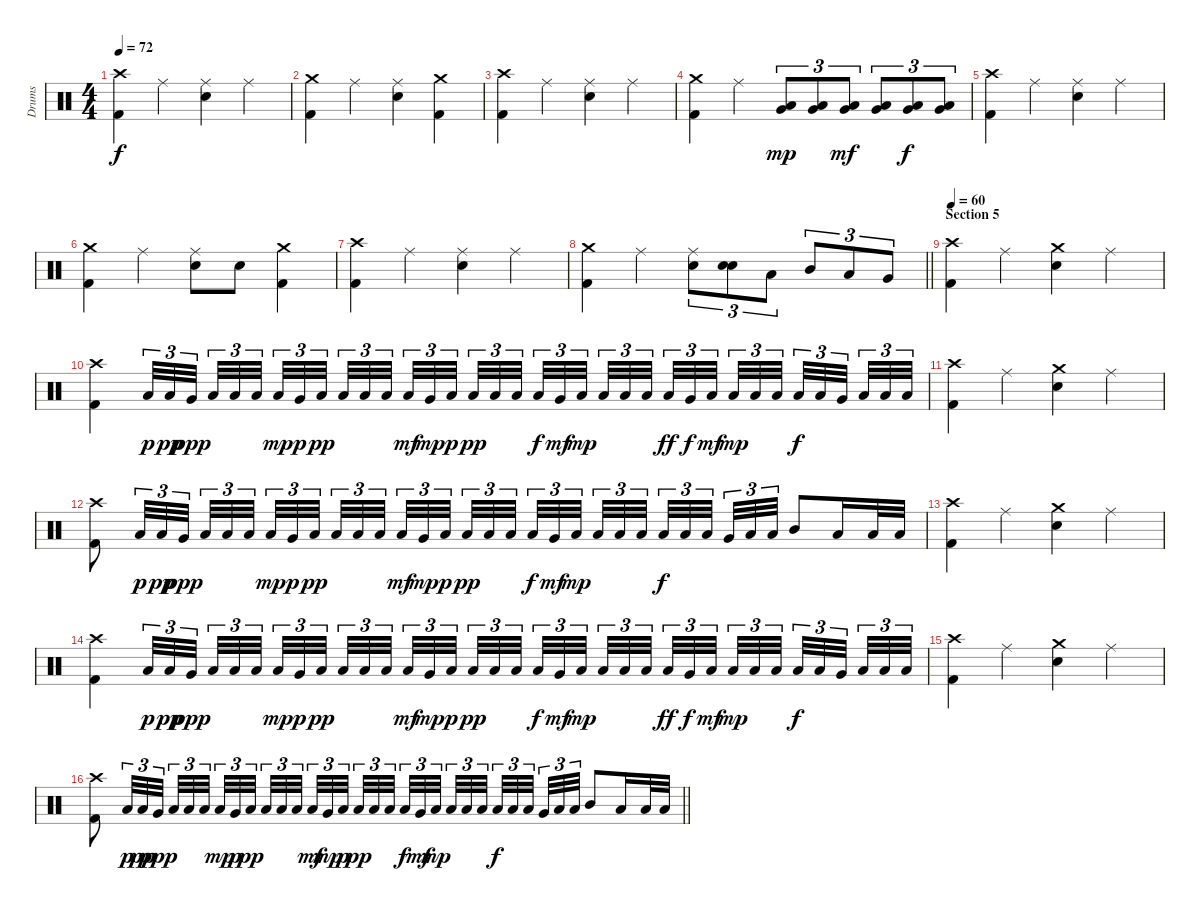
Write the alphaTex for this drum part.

\track ("Drums" "Drums") {instrument percussion}
\staff {score}
\articulation defaults
\ts (4 4)
\tempo 72
\clef neutral
\ks c
("Crash high (hit)" "Kick (hit) 2").4{dy f} "Ride (middle)".4 ("Ride (middle)" "Electric Snare (hit)").4 "Ride (middle)".4 |
("Crash medium (hit)" "Kick (hit) 2").4 "Ride (middle)".4 ("Ride (middle)" "Electric Snare (hit)").4 ("Crash medium (hit)" "Kick (hit) 2").4 |
("Crash high (hit)" "Kick (hit) 2").4 "Ride (middle)".4 ("Ride (middle)" "Electric Snare (hit)").4 "Ride (middle)".4 |
("Crash medium (hit)" "Kick (hit) 2").4 "Ride (middle)".4 ("Very Low Tom (hit)" "Low Floor Tom (hit)").8{tu (3 2) dy mp} ("Very Low Tom (hit)" "Low Floor Tom (hit)").8{tu (3 2)} ("Very Low Tom (hit)" "Low Floor Tom (hit)").8{tu (3 2) dy mf} ("Very Low Tom (hit)" "Low Floor Tom (hit)").8{tu (3 2)} ("Very Low Tom (hit)" "Low Floor Tom (hit)").8{tu (3 2) dy f} ("Very Low Tom (hit)" "Low Floor Tom (hit)").8{tu (3 2)} |
("Crash high (hit)" "Kick (hit) 2").4 "Ride (middle)".4 ("Ride (middle)" "Electric Snare (hit)").4 "Ride (middle)".4 |
("Crash medium (hit)" "Kick (hit) 2").4 "Ride (middle)".4 ("Ride (middle)" "Electric Snare (hit)").8 "Electric Snare (hit)".8 ("Crash medium (hit)" "Kick (hit) 2").4 |
("Crash high (hit)" "Kick (hit) 2").4 "Ride (middle)".4 ("Ride (middle)" "Electric Snare (hit)").4 "Ride (middle)".4 |
\barLineRight lightlight
("Crash medium (hit)" "Kick (hit) 2").4 "Ride (middle)".4 ("Ride (middle)" "Electric Snare (hit)").8{tu (3 2)} ("Electric Snare (hit)" "Electric Snare (hit)").8{tu (3 2) bu 60} "Low Tom (hit)".8{tu (3 2)} "Mid Tom (hit)".8{tu (3 2)} "Low Tom (hit)".8{tu (3 2)} "Very Low Tom (hit)".8{tu (3 2)} |
\section ("" "Section 5")
\tempo 60
("Crash high (hit)" "Kick (hit) 2").4 "Ride (middle)".4 ("Crash medium (hit)" "Electric Snare (hit)").4 "Ride (middle)".4 |
("Crash high (hit)" "Kick (hit) 2").4 "Low Tom (hit)".32{tu (3 2) dy p} "Low Floor Tom (hit)".32{tu (3 2) dy pp} "Very Low Tom (hit)".32{tu (3 2) dy ppp beam splitsecondary} "Low Floor Tom (hit)".32{tu (3 2)} "Low Floor Tom (hit)".32{tu (3 2)} "Low Floor Tom (hit)".32{tu (3 2) beam splitsecondary} "Low Tom (hit)".32{tu (3 2) dy mp} "Very Low Tom (hit)".32{tu (3 2) dy p} "Low Tom (hit)".32{tu (3 2) dy pp beam splitsecondary} "Low Floor Tom (hit)".32{tu (3 2)} "Low Floor Tom (hit)".32{tu (3 2)} "Low Floor Tom (hit)".32{tu (3 2)} "Low Tom (hit)".32{tu (3 2) dy mf} "Very Low Tom (hit)".32{tu (3 2) dy mp} "Low Tom (hit)".32{tu (3 2) dy p beam splitsecondary} "Low Floor Tom (hit)".32{tu (3 2) dy pp} "Low Floor Tom (hit)".32{tu (3 2)} "Low Floor Tom (hit)".32{tu (3 2) beam splitsecondary} "Low Tom (hit)".32{tu (3 2) dy f} "Very Low Tom (hit)".32{tu (3 2) dy mf} "Low Tom (hit)".32{tu (3 2) dy mp beam splitsecondary} "Low Floor Tom (hit)".32{tu (3 2)} "Low Floor Tom (hit)".32{tu (3 2)} "Low Floor Tom (hit)".32{tu (3 2)} "Low Tom (hit)".32{tu (3 2) dy ff} "Very Low Tom (hit)".32{tu (3 2) dy f} "Low Tom (hit)".32{tu (3 2) dy mf beam splitsecondary} "Low Floor Tom (hit)".32{tu (3 2) dy mp} "Low Floor Tom (hit)".32{tu (3 2)} "Low Floor Tom (hit)".32{tu (3 2) beam splitsecondary} "Low Tom (hit)".32{tu (3 2) dy f} "Low Tom (hit)".32{tu (3 2)} "Very Low Tom (hit)".32{tu (3 2) beam splitsecondary} "Low Floor Tom (hit)".32{tu (3 2)} "Low Floor Tom (hit)".32{tu (3 2)} "Low Floor Tom (hit)".32{tu (3 2)} |
("Crash high (hit)" "Kick (hit) 2").4 "Ride (middle)".4 ("Crash medium (hit)" "Electric Snare (hit)").4 "Ride (middle)".4 |
("Crash high (hit)" "Kick (hit) 2").8 "Low Tom (hit)".32{tu (3 2) dy p} "Low Floor Tom (hit)".32{tu (3 2) dy pp} "Very Low Tom (hit)".32{tu (3 2) dy ppp beam splitsecondary} "Low Floor Tom (hit)".32{tu (3 2)} "Low Floor Tom (hit)".32{tu (3 2)} "Low Floor Tom (hit)".32{tu (3 2)} "Low Tom (hit)".32{tu (3 2) dy mp} "Very Low Tom (hit)".32{tu (3 2) dy p} "Low Tom (hit)".32{tu (3 2) dy pp beam splitsecondary} "Low Floor Tom (hit)".32{tu (3 2)} "Low Floor Tom (hit)".32{tu (3 2)} "Low Floor Tom (hit)".32{tu (3 2) beam splitsecondary} "Low Tom (hit)".32{tu (3 2) dy mf} "Very Low Tom (hit)".32{tu (3 2) dy mp} "Low Tom (hit)".32{tu (3 2) dy p beam splitsecondary} "Low Floor Tom (hit)".32{tu (3 2) dy pp} "Low Floor Tom (hit)".32{tu (3 2)} "Low Floor Tom (hit)".32{tu (3 2)} "Low Tom (hit)".32{tu (3 2) dy f} "Very Low Tom (hit)".32{tu (3 2) dy mf} "Low Tom (hit)".32{tu (3 2) dy mp beam splitsecondary} "Low Floor Tom (hit)".32{tu (3 2)} "Low Floor Tom (hit)".32{tu (3 2)} "Low Floor Tom (hit)".32{tu (3 2) beam splitsecondary} "Low Floor Tom (hit)".32{tu (3 2) dy f} "Low Floor Tom (hit)".32{tu (3 2)} "Low Tom (hit)".32{tu (3 2) beam splitsecondary} "Very Low Tom (hit)".32{tu (3 2)} "Low Floor Tom (hit)".32{tu (3 2)} "Low Floor Tom (hit)".32{tu (3 2)} "Mid Tom (hit)".8 "Low Tom (hit)".16 "Low Tom (hit)".32 "Low Tom (hit)".32 |
("Crash high (hit)" "Kick (hit) 2").4 "Ride (middle)".4 ("Crash medium (hit)" "Electric Snare (hit)").4 "Ride (middle)".4 |
("Crash high (hit)" "Kick (hit) 2").4 "Low Tom (hit)".32{tu (3 2) dy p} "Low Floor Tom (hit)".32{tu (3 2) dy pp} "Very Low Tom (hit)".32{tu (3 2) dy ppp beam splitsecondary} "Low Floor Tom (hit)".32{tu (3 2)} "Low Floor Tom (hit)".32{tu (3 2)} "Low Floor Tom (hit)".32{tu (3 2) beam splitsecondary} "Low Tom (hit)".32{tu (3 2) dy mp} "Very Low Tom (hit)".32{tu (3 2) dy p} "Low Tom (hit)".32{tu (3 2) dy pp beam splitsecondary} "Low Floor Tom (hit)".32{tu (3 2)} "Low Floor Tom (hit)".32{tu (3 2)} "Low Floor Tom (hit)".32{tu (3 2)} "Low Tom (hit)".32{tu (3 2) dy mf} "Very Low Tom (hit)".32{tu (3 2) dy mp} "Low Tom (hit)".32{tu (3 2) dy p beam splitsecondary} "Low Floor Tom (hit)".32{tu (3 2) dy pp} "Low Floor Tom (hit)".32{tu (3 2)} "Low Floor Tom (hit)".32{tu (3 2) beam splitsecondary} "Low Tom (hit)".32{tu (3 2) dy f} "Very Low Tom (hit)".32{tu (3 2) dy mf} "Low Tom (hit)".32{tu (3 2) dy mp beam splitsecondary} "Low Floor Tom (hit)".32{tu (3 2)} "Low Floor Tom (hit)".32{tu (3 2)} "Low Floor Tom (hit)".32{tu (3 2)} "Low Tom (hit)".32{tu (3 2) dy ff} "Very Low Tom (hit)".32{tu (3 2) dy f} "Low Tom (hit)".32{tu (3 2) dy mf beam splitsecondary} "Low Floor Tom (hit)".32{tu (3 2) dy mp} "Low Floor Tom (hit)".32{tu (3 2)} "Low Floor Tom (hit)".32{tu (3 2) beam splitsecondary} "Low Tom (hit)".32{tu (3 2) dy f} "Low Tom (hit)".32{tu (3 2)} "Very Low Tom (hit)".32{tu (3 2) beam splitsecondary} "Low Floor Tom (hit)".32{tu (3 2)} "Low Floor Tom (hit)".32{tu (3 2)} "Low Floor Tom (hit)".32{tu (3 2)} |
("Crash high (hit)" "Kick (hit) 2").4 "Ride (middle)".4 ("Crash medium (hit)" "Electric Snare (hit)").4 "Ride (middle)".4 |
\barLineRight lightlight
("Crash high (hit)" "Kick (hit) 2").8 "Low Tom (hit)".32{tu (3 2) dy p} "Low Floor Tom (hit)".32{tu (3 2) dy pp} "Very Low Tom (hit)".32{tu (3 2) dy ppp beam splitsecondary} "Low Floor Tom (hit)".32{tu (3 2)} "Low Floor Tom (hit)".32{tu (3 2)} "Low Floor Tom (hit)".32{tu (3 2)} "Low Tom (hit)".32{tu (3 2) dy mp} "Very Low Tom (hit)".32{tu (3 2) dy p} "Low Tom (hit)".32{tu (3 2) dy pp beam splitsecondary} "Low Floor Tom (hit)".32{tu (3 2)} "Low Floor Tom (hit)".32{tu (3 2)} "Low Floor Tom (hit)".32{tu (3 2) beam splitsecondary} "Low Tom (hit)".32{tu (3 2) dy mf} "Very Low Tom (hit)".32{tu (3 2) dy mp} "Low Tom (hit)".32{tu (3 2) dy p beam splitsecondary} "Low Floor Tom (hit)".32{tu (3 2) dy pp} "Low Floor Tom (hit)".32{tu (3 2)} "Low Floor Tom (hit)".32{tu (3 2)} "Low Tom (hit)".32{tu (3 2) dy f} "Very Low Tom (hit)".32{tu (3 2) dy mf} "Low Tom (hit)".32{tu (3 2) dy mp beam splitsecondary} "Low Floor Tom (hit)".32{tu (3 2)} "Low Floor Tom (hit)".32{tu (3 2)} "Low Floor Tom (hit)".32{tu (3 2) beam splitsecondary} "Low Floor Tom (hit)".32{tu (3 2) dy f} "Low Floor Tom (hit)".32{tu (3 2)} "Low Tom (hit)".32{tu (3 2) beam splitsecondary} "Very Low Tom (hit)".32{tu (3 2)} "Low Floor Tom (hit)".32{tu (3 2)} "Low Floor Tom (hit)".32{tu (3 2)} "Mid Tom (hit)".8 "Low Tom (hit)".16 "Low Tom (hit)".32 "Low Tom (hit)".32
